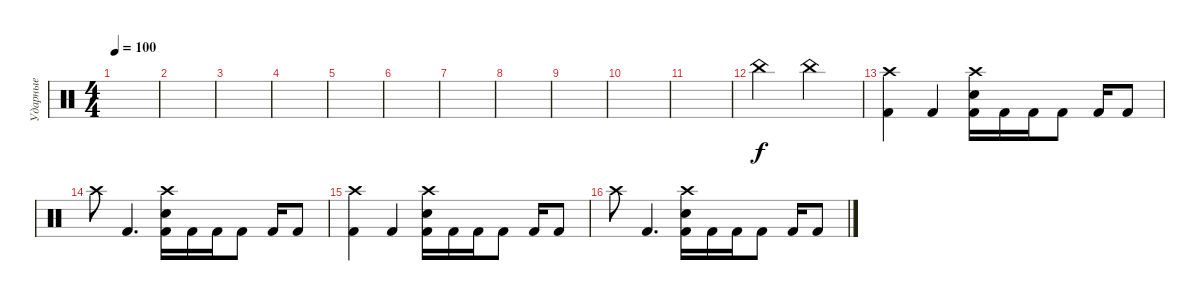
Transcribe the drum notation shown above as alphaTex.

\track ("Ударные" "Ударные") {instrument percussion}
\staff
\articulation defaults
\ts (4 4)
\tempo 100
\clef neutral
\ks c
|
|
|
|
|
|
|
|
|
|
|
"China (hit)".2 "China (hit)".2 |
("Crash high (hit)" "Kick (hit) 2").4 "Kick (hit) 2".4 ("Crash high (hit)" "Electric Snare (hit)" "Kick (hit) 2").16 "Kick (hit) 2".16 "Kick (hit) 2".16 "Kick (hit) 2".8 "Kick (hit) 2".16 "Kick (hit) 2".8 |
"Crash high (hit)".8 "Kick (hit) 2".4{d} ("Crash high (hit)" "Electric Snare (hit)" "Kick (hit) 2").16 "Kick (hit) 2".16 "Kick (hit) 2".16 "Kick (hit) 2".8 "Kick (hit) 2".16 "Kick (hit) 2".8 |
("Crash high (hit)" "Kick (hit) 2").4 "Kick (hit) 2".4 ("Crash high (hit)" "Electric Snare (hit)" "Kick (hit) 2").16 "Kick (hit) 2".16 "Kick (hit) 2".16 "Kick (hit) 2".8 "Kick (hit) 2".16 "Kick (hit) 2".8 |
"Crash high (hit)".8 "Kick (hit) 2".4{d} ("Crash high (hit)" "Electric Snare (hit)" "Kick (hit) 2").16 "Kick (hit) 2".16 "Kick (hit) 2".16 "Kick (hit) 2".8 "Kick (hit) 2".16 "Kick (hit) 2".8
